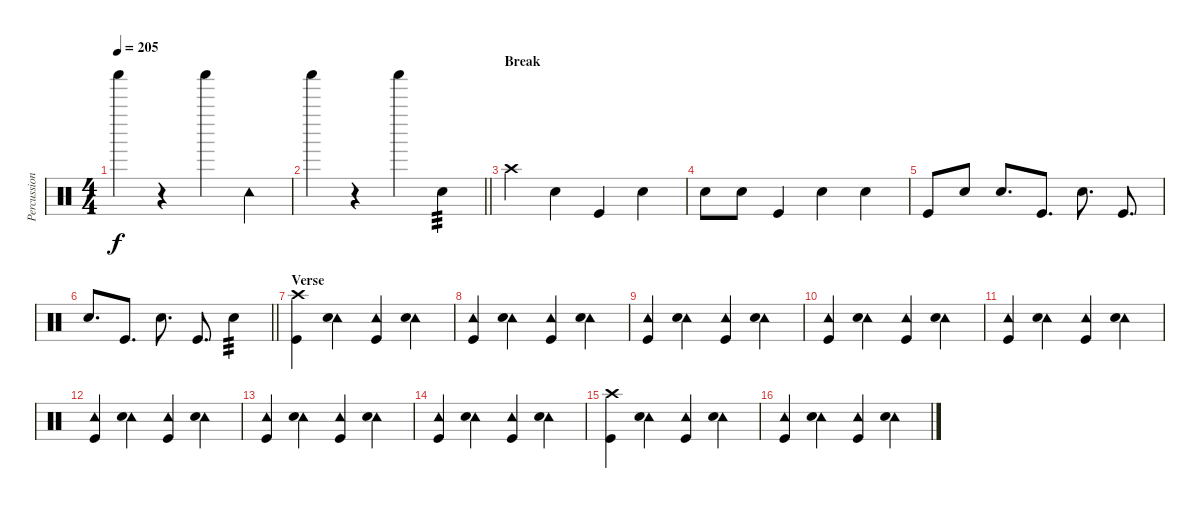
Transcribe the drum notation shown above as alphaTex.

\track ("Percussion" "Percussion") {instrument percussion}
\staff {score}
\articulation defaults
\ts (4 4)
\tempo 205
\clef neutral
\ks c "Shaker (hit)".4{dy f}
r.4 "Shaker (hit)".4 "Tambourine (hit)".4 |
\barLineRight lightlight "Shaker (hit)".4
r.4 "Shaker (hit)".4 "Electric Snare (hit)".4{tp 3} |
\section ("" "Break")
"Crash high (hit)".4 "Electric Snare (hit)".4 "Kick (hit)".4 "Electric Snare (hit)".4 |
"Electric Snare (hit)".8 "Electric Snare (hit)".8 "Kick (hit)".4 "Electric Snare (hit)".4 "Electric Snare (hit)".4 |
"Kick (hit)".8 "Electric Snare (hit)".8 "Electric Snare (hit)".8{d} "Kick (hit)".8{d} "Electric Snare (hit)".8{d} "Kick (hit)".8{d} |
\barLineRight lightlight "Electric Snare (hit)".8{d} "Kick (hit)".8{d} "Electric Snare (hit)".8{d} "Kick (hit)".8{d} "Electric Snare (hit)".4{tp 3}
|
\section ("" "Verse")
("Crash high (hit)" "Kick (hit)").4 ("Tambourine (hit)" "Electric Snare (hit)").4 ("Tambourine (hit)" "Kick (hit)").4 ("Tambourine (hit)" "Electric Snare (hit)").4 |
("Tambourine (hit)" "Kick (hit)").4 ("Tambourine (hit)" "Electric Snare (hit)").4 ("Tambourine (hit)" "Kick (hit)").4 ("Tambourine (hit)" "Electric Snare (hit)").4 |
("Tambourine (hit)" "Kick (hit)").4 ("Tambourine (hit)" "Electric Snare (hit)").4 ("Tambourine (hit)" "Kick (hit)").4 ("Tambourine (hit)" "Electric Snare (hit)").4 |
("Tambourine (hit)" "Kick (hit)").4 ("Tambourine (hit)" "Electric Snare (hit)").4 ("Tambourine (hit)" "Kick (hit)").4 ("Tambourine (hit)" "Electric Snare (hit)").4 |
("Tambourine (hit)" "Kick (hit)").4 ("Tambourine (hit)" "Electric Snare (hit)").4 ("Tambourine (hit)" "Kick (hit)").4 ("Tambourine (hit)" "Electric Snare (hit)").4 |
("Tambourine (hit)" "Kick (hit)").4 ("Tambourine (hit)" "Electric Snare (hit)").4 ("Tambourine (hit)" "Kick (hit)").4 ("Tambourine (hit)" "Electric Snare (hit)").4 |
("Tambourine (hit)" "Kick (hit)").4 ("Tambourine (hit)" "Electric Snare (hit)").4 ("Tambourine (hit)" "Kick (hit)").4 ("Tambourine (hit)" "Electric Snare (hit)").4 |
("Tambourine (hit)" "Kick (hit)").4 ("Tambourine (hit)" "Electric Snare (hit)").4 ("Tambourine (hit)" "Kick (hit)").4 ("Tambourine (hit)" "Electric Snare (hit)").4 |
("Crash high (hit)" "Kick (hit)").4 ("Tambourine (hit)" "Electric Snare (hit)").4 ("Tambourine (hit)" "Kick (hit)").4 ("Tambourine (hit)" "Electric Snare (hit)").4 |
("Tambourine (hit)" "Kick (hit)").4 ("Tambourine (hit)" "Electric Snare (hit)").4 ("Tambourine (hit)" "Kick (hit)").4 ("Tambourine (hit)" "Electric Snare (hit)").4
